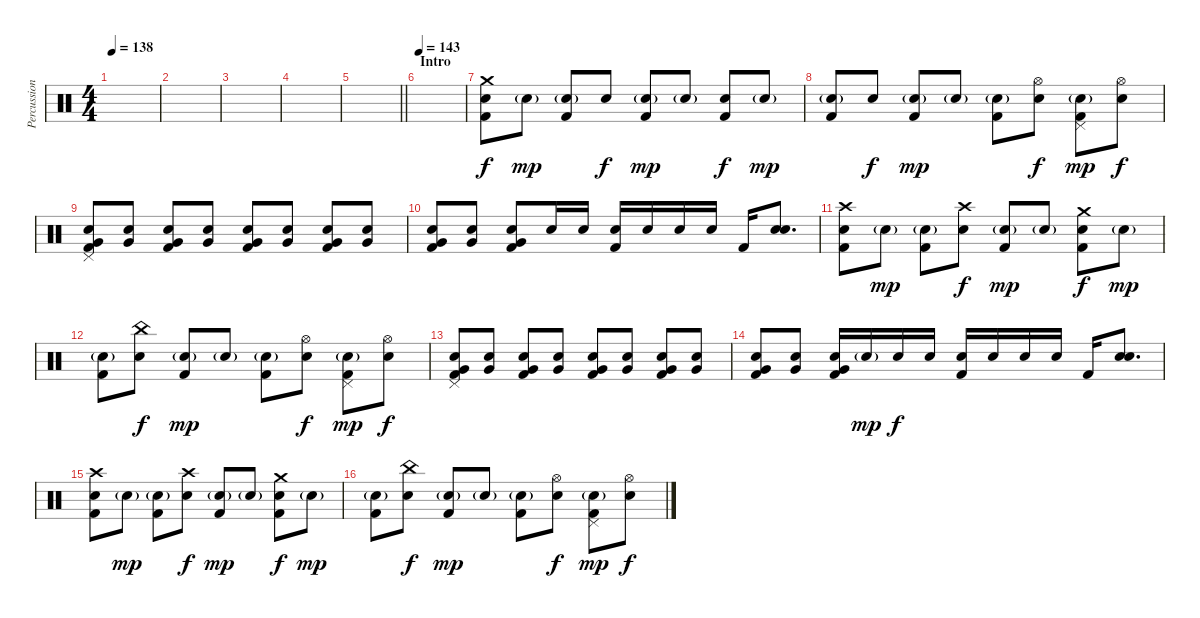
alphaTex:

\track ("Percussion" "Percussion") {instrument percussion}
\staff {score}
\articulation defaults
\ts (4 4)
\tempo 138
\clef neutral
\ks c
|
|
|
|
\barLineRight lightlight
|
\section ("" "Intro")
\tempo 143
|
("Crash medium (hit)" "Electric Snare (hit)" "Kick (hit) 2").8 "Electric Snare (hit)"{g}.8{dy mp} ("Electric Snare (hit)"{g} "Kick (hit) 2").8 "Electric Snare (hit)".8{dy f} ("Electric Snare (hit)"{g} "Kick (hit) 2").8{dy mp} "Electric Snare (hit)"{g}.8 ("Electric Snare (hit)" "Kick (hit) 2").8{dy f} "Electric Snare (hit)"{g}.8{dy mp} |
("Electric Snare (hit)"{g} "Kick (hit) 2").8 "Electric Snare (hit)".8{dy f} ("Electric Snare (hit)"{g} "Kick (hit) 2").8{dy mp} "Electric Snare (hit)"{g}.8 ("Electric Snare (hit)"{g} "Kick (hit) 2").8 ("Hi-Hat (open)" "Electric Snare (hit)").8{dy f} ("Pedal Hi-Hat (hit)" "Electric Snare (hit)"{g} "Kick (hit) 2").8{dy mp} ("Hi-Hat (open)" "Electric Snare (hit)").8{dy f} |
("Pedal Hi-Hat (hit)" "Electric Snare (hit)" "Very Low Tom (hit)" "Kick (hit) 2").8 ("Electric Snare (hit)" "Very Low Tom (hit)").8 ("Electric Snare (hit)" "Very Low Tom (hit)" "Kick (hit) 2").8 ("Electric Snare (hit)" "Very Low Tom (hit)").8 ("Electric Snare (hit)" "Very Low Tom (hit)" "Kick (hit) 2").8 ("Electric Snare (hit)" "Very Low Tom (hit)").8 ("Electric Snare (hit)" "Very Low Tom (hit)" "Kick (hit) 2").8 ("Electric Snare (hit)" "Very Low Tom (hit)").8 |
("Electric Snare (hit)" "Very Low Tom (hit)" "Kick (hit) 2").8 ("Electric Snare (hit)" "Very Low Tom (hit)").8 ("Electric Snare (hit)" "Very Low Tom (hit)" "Kick (hit) 2").8 "Electric Snare (hit)".16 "Electric Snare (hit)".16 ("Electric Snare (hit)" "Kick (hit) 2").16 "Electric Snare (hit)".16 "Electric Snare (hit)".16 "Electric Snare (hit)".16 "Kick (hit) 2".16 ("Electric Snare (hit)" "Electric Snare (hit)").8{d bd 120} |
("Crash high (hit)" "Electric Snare (hit)" "Kick (hit) 2").8 "Electric Snare (hit)"{g}.8{dy mp} ("Electric Snare (hit)"{g} "Kick (hit) 2").8 ("Crash high (hit)" "Electric Snare (hit)").8{dy f} ("Electric Snare (hit)"{g} "Kick (hit) 2").8{dy mp} "Electric Snare (hit)"{g}.8 ("Crash medium (hit)" "Electric Snare (hit)" "Kick (hit) 2").8{dy f} "Electric Snare (hit)"{g}.8{dy mp} |
("Electric Snare (hit)"{g} "Kick (hit) 2").8 ("China (hit)" "Electric Snare (hit)").8{dy f} ("Electric Snare (hit)"{g} "Kick (hit) 2").8{dy mp} "Electric Snare (hit)"{g}.8 ("Electric Snare (hit)"{g} "Kick (hit) 2").8 ("Hi-Hat (open)" "Electric Snare (hit)").8{dy f} ("Pedal Hi-Hat (hit)" "Electric Snare (hit)"{g} "Kick (hit) 2").8{dy mp} ("Hi-Hat (open)" "Electric Snare (hit)").8{dy f} |
("Pedal Hi-Hat (hit)" "Electric Snare (hit)" "Very Low Tom (hit)" "Kick (hit) 2").8 ("Electric Snare (hit)" "Very Low Tom (hit)").8 ("Electric Snare (hit)" "Very Low Tom (hit)" "Kick (hit) 2").8 ("Electric Snare (hit)" "Very Low Tom (hit)").8 ("Electric Snare (hit)" "Very Low Tom (hit)" "Kick (hit) 2").8 ("Electric Snare (hit)" "Very Low Tom (hit)").8 ("Electric Snare (hit)" "Very Low Tom (hit)" "Kick (hit) 2").8 ("Electric Snare (hit)" "Very Low Tom (hit)").8 |
("Electric Snare (hit)" "Very Low Tom (hit)" "Kick (hit) 2").8 ("Electric Snare (hit)" "Very Low Tom (hit)").8 ("Electric Snare (hit)" "Very Low Tom (hit)" "Kick (hit) 2").16 "Electric Snare (hit)"{g}.16{dy mp} "Electric Snare (hit)".16{dy f} "Electric Snare (hit)".16 ("Electric Snare (hit)" "Kick (hit) 2").16 "Electric Snare (hit)".16 "Electric Snare (hit)".16 "Electric Snare (hit)".16 "Kick (hit) 2".16 ("Electric Snare (hit)" "Electric Snare (hit)").8{d bd 120} |
("Crash high (hit)" "Electric Snare (hit)" "Kick (hit) 2").8 "Electric Snare (hit)"{g}.8{dy mp} ("Electric Snare (hit)"{g} "Kick (hit) 2").8 ("Crash high (hit)" "Electric Snare (hit)").8{dy f} ("Electric Snare (hit)"{g} "Kick (hit) 2").8{dy mp} "Electric Snare (hit)"{g}.8 ("Crash medium (hit)" "Electric Snare (hit)" "Kick (hit) 2").8{dy f} "Electric Snare (hit)"{g}.8{dy mp} |
("Electric Snare (hit)"{g} "Kick (hit) 2").8 ("China (hit)" "Electric Snare (hit)").8{dy f} ("Electric Snare (hit)"{g} "Kick (hit) 2").8{dy mp} "Electric Snare (hit)"{g}.8 ("Electric Snare (hit)"{g} "Kick (hit) 2").8 ("Hi-Hat (open)" "Electric Snare (hit)").8{dy f} ("Pedal Hi-Hat (hit)" "Electric Snare (hit)"{g} "Kick (hit) 2").8{dy mp} ("Hi-Hat (open)" "Electric Snare (hit)").8{dy f}
